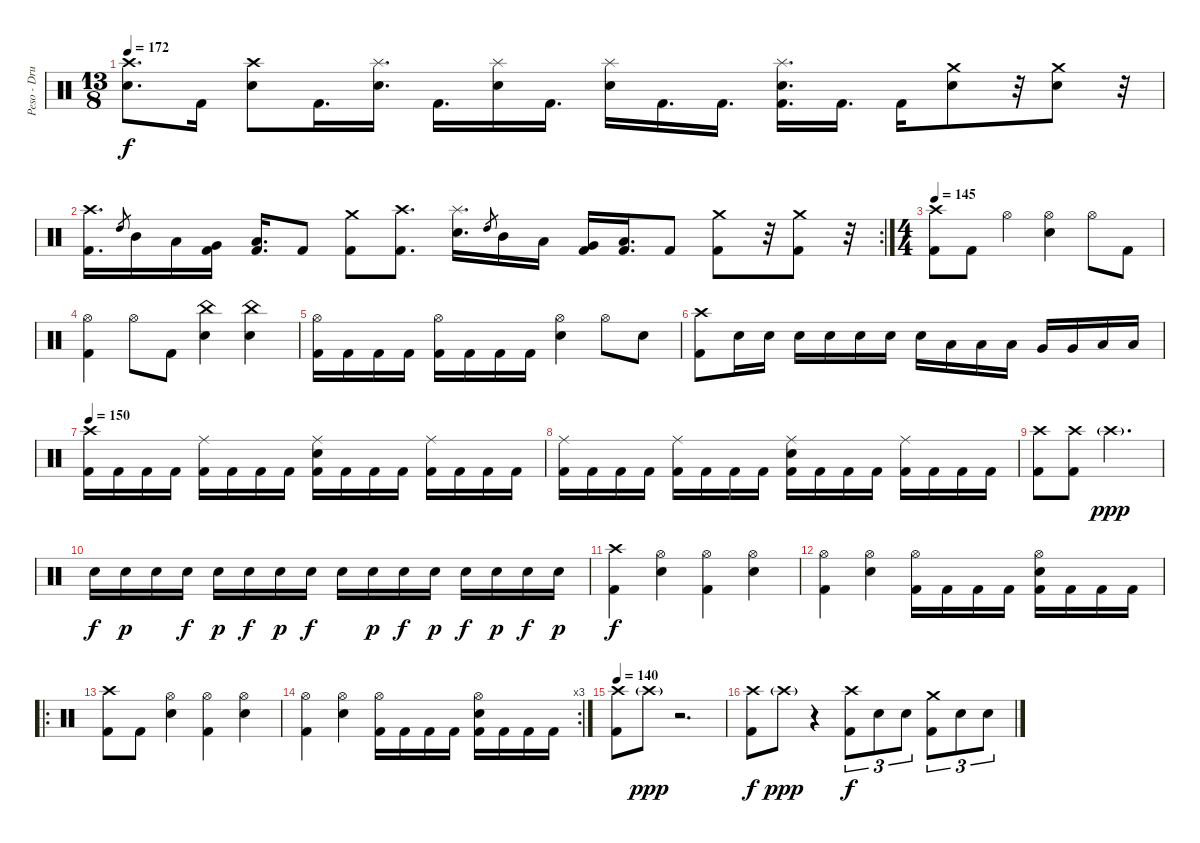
\track ("Peso - Drums" "Peso - Dru") {instrument percussion}
\staff {score}
\articulation defaults
\ts (13 8)
\tempo 172
\clef neutral
\ks c
("Crash high (hit)" "Electric Snare (hit)").8{d dy f} "Kick (hit) 2".16 ("Crash high (hit)" "Electric Snare (hit)").8 "Kick (hit) 2".16{d} ("Splash (hit)" "Electric Snare (hit)").16{d} "Kick (hit) 2".16{d} ("Splash (hit)" "Electric Snare (hit)").16 "Kick (hit) 2".16{d} ("Splash (hit)" "Electric Snare (hit)").16 "Kick (hit) 2".16{d} "Kick (hit) 2".16{d} ("Splash (hit)" "Electric Snare (hit)" "Kick (hit) 2").16{d} "Kick (hit) 2".16{d} "Kick (hit) 2".16 ("Crash medium (hit)" "Electric Snare (hit)").8 r.32 ("Crash medium (hit)" "Electric Snare (hit)").8 r.32 |
\rc 2
("Crash high (hit)" "Kick (hit) 2").16{d} "High Tom (hit)".8{gr} "Mid Tom (hit)".16 "Low Tom (hit)".16 ("Very Low Tom (hit)" "Kick (hit) 2").16 ("Low Floor Tom (hit)" "Kick (hit) 2").16{d} "Kick (hit) 2".8 ("Crash medium (hit)" "Kick (hit) 2").8 ("Crash high (hit)" "Kick (hit) 2").8{d} ("Splash (hit)" "Electric Snare (hit)").16{d} "High Tom (hit)".8{gr} "Mid Tom (hit)".16 "Low Tom (hit)".16 ("Very Low Tom (hit)" "Kick (hit) 2").16 ("Low Floor Tom (hit)" "Kick (hit) 2").16{d} "Kick (hit) 2".8 ("Crash medium (hit)" "Kick (hit) 2").8 r.32 ("Crash medium (hit)" "Kick (hit) 2").8 r.32 |
\ts (4 4)
\tempo 145
("Crash high (hit)" "Kick (hit) 2").8 "Kick (hit) 2".8 "Hi-Hat (open)".4 ("Hi-Hat (open)" "Electric Snare (hit)").4 "Hi-Hat (open)".8 "Kick (hit) 2".8 |
("Hi-Hat (open)" "Kick (hit) 2").4 "Hi-Hat (open)".8 "Kick (hit) 2".8 ("China (hit)" "Electric Snare (hit)").4 ("China (hit)" "Electric Snare (hit)").4 |
("Hi-Hat (open)" "Kick (hit) 2").16 "Kick (hit) 2".16 "Kick (hit) 2".16 "Kick (hit) 2".16 ("Hi-Hat (open)" "Kick (hit) 2").16 "Kick (hit) 2".16 "Kick (hit) 2".16 "Kick (hit) 2".16 ("Hi-Hat (open)" "Electric Snare (hit)").4 "Hi-Hat (open)".8 "Electric Snare (hit)".8 |
("Crash high (hit)" "Kick (hit) 2").8 "Electric Snare (hit)".16 "Electric Snare (hit)".16 "Electric Snare (hit)".16 "Electric Snare (hit)".16 "Electric Snare (hit)".16 "Electric Snare (hit)".16 "Electric Snare (hit)".16 "Low Tom (hit)".16 "Low Tom (hit)".16 "Low Tom (hit)".16 "Very Low Tom (hit)".16 "Very Low Tom (hit)".16 "Low Floor Tom (hit)".16 "Low Floor Tom (hit)".16 |
\tempo 150
("Crash high (hit)" "Kick (hit) 2").16 "Kick (hit) 2".16 "Kick (hit) 2".16 "Kick (hit) 2".16 ("Ride (middle)" "Kick (hit) 2").16 "Kick (hit) 2".16 "Kick (hit) 2".16 "Kick (hit) 2".16 ("Ride (middle)" "Electric Snare (hit)" "Kick (hit) 2").16 "Kick (hit) 2".16 "Kick (hit) 2".16 "Kick (hit) 2".16 ("Ride (middle)" "Kick (hit) 2").16 "Kick (hit) 2".16 "Kick (hit) 2".16 "Kick (hit) 2".16 |
("Ride (middle)" "Kick (hit) 2").16 "Kick (hit) 2".16 "Kick (hit) 2".16 "Kick (hit) 2".16 ("Ride (middle)" "Kick (hit) 2").16 "Kick (hit) 2".16 "Kick (hit) 2".16 "Kick (hit) 2".16 ("Ride (middle)" "Electric Snare (hit)" "Kick (hit) 2").16 "Kick (hit) 2".16 "Kick (hit) 2".16 "Kick (hit) 2".16 ("Ride (middle)" "Kick (hit) 2").16 "Kick (hit) 2".16 "Kick (hit) 2".16 "Kick (hit) 2".16 |
("Crash high (hit)" "Kick (hit) 2").8 ("Crash high (hit)" "Kick (hit) 2").8 "Crash high (hit)"{g}.2{d dy ppp} |
"Electric Snare (hit)".16{dy f} "Electric Snare (hit)".16{dy p} "Electric Snare (hit)".16 "Electric Snare (hit)".16{dy f} "Electric Snare (hit)".16{dy p} "Electric Snare (hit)".16{dy f} "Electric Snare (hit)".16{dy p} "Electric Snare (hit)".16{dy f} "Electric Snare (hit)".16 "Electric Snare (hit)".16{dy p} "Electric Snare (hit)".16{dy f} "Electric Snare (hit)".16{dy p} "Electric Snare (hit)".16{dy f} "Electric Snare (hit)".16{dy p} "Electric Snare (hit)".16{dy f} "Electric Snare (hit)".16{dy p} |
("Crash high (hit)" "Kick (hit) 2").4{dy f} ("Hi-Hat (open)" "Electric Snare (hit)").4 ("Hi-Hat (open)" "Kick (hit) 2").4 ("Hi-Hat (open)" "Electric Snare (hit)").4 |
("Hi-Hat (open)" "Kick (hit) 2").4 ("Hi-Hat (open)" "Electric Snare (hit)").4 ("Hi-Hat (open)" "Kick (hit) 2").16 "Kick (hit) 2".16 "Kick (hit) 2".16 "Kick (hit) 2".16 ("Hi-Hat (open)" "Electric Snare (hit)" "Kick (hit) 2").16 "Kick (hit) 2".16 "Kick (hit) 2".16 "Kick (hit) 2".16 |
\ro
("Crash high (hit)" "Kick (hit) 2").8 "Kick (hit) 2".8 ("Hi-Hat (open)" "Electric Snare (hit)").4 ("Hi-Hat (open)" "Kick (hit) 2").4 ("Hi-Hat (open)" "Electric Snare (hit)").4 |
\rc 3
("Hi-Hat (open)" "Kick (hit) 2").4 ("Hi-Hat (open)" "Electric Snare (hit)").4 ("Hi-Hat (open)" "Kick (hit) 2").16 "Kick (hit) 2".16 "Kick (hit) 2".16 "Kick (hit) 2".16 ("Hi-Hat (open)" "Electric Snare (hit)" "Kick (hit) 2").16 "Kick (hit) 2".16 "Kick (hit) 2".16 "Kick (hit) 2".16 |
\tempo 140
("Crash high (hit)" "Kick (hit) 2").8 "Crash high (hit)"{g}.8{dy ppp} r.2{d} |
("Crash high (hit)" "Kick (hit) 2").8{dy f} "Crash high (hit)"{g}.8{dy ppp} r.4 ("Crash high (hit)" "Kick (hit) 2").8{tu (3 2) dy f} "Electric Snare (hit)".8{tu (3 2)} "Electric Snare (hit)".8{tu (3 2)} ("Crash medium (hit)" "Kick (hit) 2").8{tu (3 2)} "Electric Snare (hit)".8{tu (3 2)} "Electric Snare (hit)".8{tu (3 2)}
